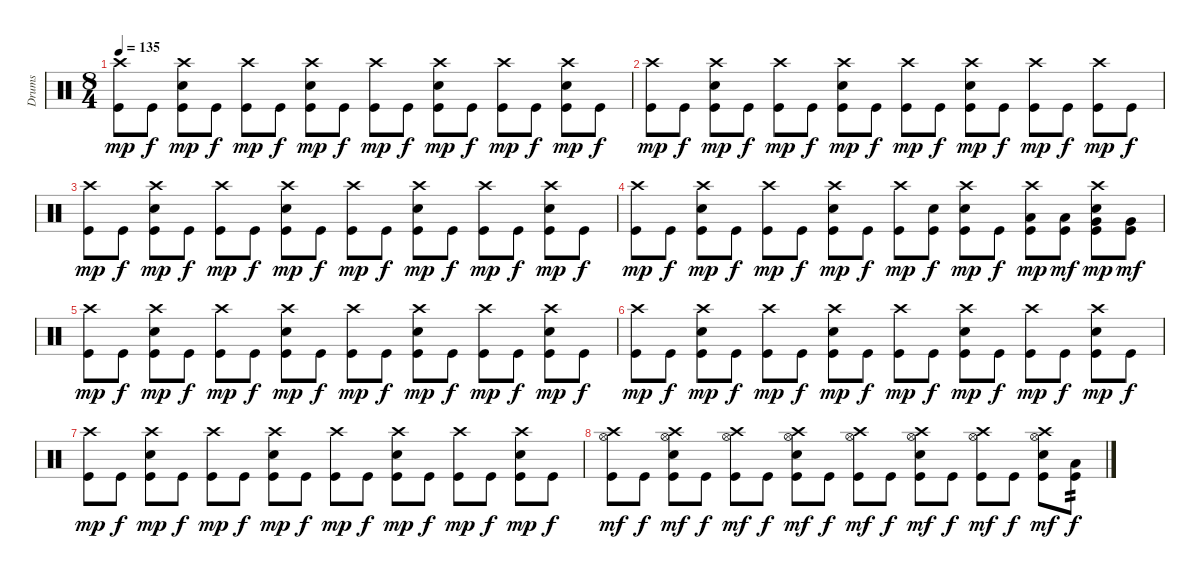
\track ("Drums" "Drums") {instrument percussion}
\staff {score}
\articulation defaults
\ts (8 4)
\tempo 135
\clef neutral
\ks c
("Crash high (hit)" "Kick (hit)").8{dy mp} "Kick (hit)".8{dy f} ("Crash high (hit)" "Electric Snare (hit)" "Kick (hit)").8{dy mp} "Kick (hit)".8{dy f} ("Crash high (hit)" "Kick (hit)").8{dy mp} "Kick (hit)".8{dy f} ("Crash high (hit)" "Electric Snare (hit)" "Kick (hit)").8{dy mp} "Kick (hit)".8{dy f} ("Crash high (hit)" "Kick (hit)").8{dy mp} "Kick (hit)".8{dy f} ("Crash high (hit)" "Electric Snare (hit)" "Kick (hit)").8{dy mp} "Kick (hit)".8{dy f} ("Crash high (hit)" "Kick (hit)").8{dy mp} "Kick (hit)".8{dy f} ("Crash high (hit)" "Electric Snare (hit)" "Kick (hit)").8{dy mp} "Kick (hit)".8{dy f} |
("Crash high (hit)" "Kick (hit)").8{dy mp} "Kick (hit)".8{dy f} ("Crash high (hit)" "Electric Snare (hit)" "Kick (hit)").8{dy mp} "Kick (hit)".8{dy f} ("Crash high (hit)" "Kick (hit)").8{dy mp} "Kick (hit)".8{dy f} ("Crash high (hit)" "Electric Snare (hit)" "Kick (hit)").8{dy mp} "Kick (hit)".8{dy f} ("Crash high (hit)" "Kick (hit)").8{dy mp} "Kick (hit)".8{dy f} ("Crash high (hit)" "Electric Snare (hit)" "Kick (hit)").8{dy mp} "Kick (hit)".8{dy f} ("Crash high (hit)" "Kick (hit)").8{dy mp} "Kick (hit)".8{dy f} ("Crash high (hit)" "Kick (hit)").8{dy mp} "Kick (hit)".8{dy f} |
("Crash high (hit)" "Kick (hit)").8{dy mp} "Kick (hit)".8{dy f} ("Crash high (hit)" "Electric Snare (hit)" "Kick (hit)").8{dy mp} "Kick (hit)".8{dy f} ("Crash high (hit)" "Kick (hit)").8{dy mp} "Kick (hit)".8{dy f} ("Crash high (hit)" "Electric Snare (hit)" "Kick (hit)").8{dy mp} "Kick (hit)".8{dy f} ("Crash high (hit)" "Kick (hit)").8{dy mp} "Kick (hit)".8{dy f} ("Crash high (hit)" "Electric Snare (hit)" "Kick (hit)").8{dy mp} "Kick (hit)".8{dy f} ("Crash high (hit)" "Kick (hit)").8{dy mp} "Kick (hit)".8{dy f} ("Crash high (hit)" "Electric Snare (hit)" "Kick (hit)").8{dy mp} "Kick (hit)".8{dy f} |
("Crash high (hit)" "Kick (hit)").8{dy mp} "Kick (hit)".8{dy f} ("Crash high (hit)" "Electric Snare (hit)" "Kick (hit)").8{dy mp} "Kick (hit)".8{dy f} ("Crash high (hit)" "Kick (hit)").8{dy mp} "Kick (hit)".8{dy f} ("Crash high (hit)" "Electric Snare (hit)" "Kick (hit)").8{dy mp} "Kick (hit)".8{dy f} ("Crash high (hit)" "Kick (hit)").8{dy mp} ("Electric Snare (hit)" "Kick (hit)").8{dy f} ("Crash high (hit)" "Electric Snare (hit)" "Kick (hit)").8{dy mp} "Kick (hit)".8{dy f} ("Crash high (hit)" "Low Tom (hit)" "Kick (hit)").8{dy mp} ("Low Tom (hit)" "Kick (hit)").8{dy mf} ("Crash high (hit)" "Very Low Tom (hit)" "Electric Snare (hit)" "Kick (hit)").8{dy mp} ("Very Low Tom (hit)" "Kick (hit)").8{dy mf} |
("Crash high (hit)" "Kick (hit)").8{dy mp} "Kick (hit)".8{dy f} ("Crash high (hit)" "Electric Snare (hit)" "Kick (hit)").8{dy mp} "Kick (hit)".8{dy f} ("Crash high (hit)" "Kick (hit)").8{dy mp} "Kick (hit)".8{dy f} ("Crash high (hit)" "Electric Snare (hit)" "Kick (hit)").8{dy mp} "Kick (hit)".8{dy f} ("Crash high (hit)" "Kick (hit)").8{dy mp} "Kick (hit)".8{dy f} ("Crash high (hit)" "Electric Snare (hit)" "Kick (hit)").8{dy mp} "Kick (hit)".8{dy f} ("Crash high (hit)" "Kick (hit)").8{dy mp} "Kick (hit)".8{dy f} ("Crash high (hit)" "Electric Snare (hit)" "Kick (hit)").8{dy mp} "Kick (hit)".8{dy f} |
("Crash high (hit)" "Kick (hit)").8{dy mp} "Kick (hit)".8{dy f} ("Crash high (hit)" "Electric Snare (hit)" "Kick (hit)").8{dy mp} "Kick (hit)".8{dy f} ("Crash high (hit)" "Kick (hit)").8{dy mp} "Kick (hit)".8{dy f} ("Crash high (hit)" "Electric Snare (hit)" "Kick (hit)").8{dy mp} "Kick (hit)".8{dy f} ("Crash high (hit)" "Kick (hit)").8{dy mp} "Kick (hit)".8{dy f} ("Crash high (hit)" "Electric Snare (hit)" "Kick (hit)").8{dy mp} "Kick (hit)".8{dy f} ("Crash high (hit)" "Kick (hit)").8{dy mp} "Kick (hit)".8{dy f} ("Crash high (hit)" "Electric Snare (hit)" "Kick (hit)").8{dy mp} "Kick (hit)".8{dy f} |
("Crash high (hit)" "Kick (hit)").8{dy mp} "Kick (hit)".8{dy f} ("Crash high (hit)" "Electric Snare (hit)" "Kick (hit)").8{dy mp} "Kick (hit)".8{dy f} ("Crash high (hit)" "Kick (hit)").8{dy mp} "Kick (hit)".8{dy f} ("Crash high (hit)" "Electric Snare (hit)" "Kick (hit)").8{dy mp} "Kick (hit)".8{dy f} ("Crash high (hit)" "Kick (hit)").8{dy mp} "Kick (hit)".8{dy f} ("Crash high (hit)" "Electric Snare (hit)" "Kick (hit)").8{dy mp} "Kick (hit)".8{dy f} ("Crash high (hit)" "Kick (hit)").8{dy mp} "Kick (hit)".8{dy f} ("Crash high (hit)" "Electric Snare (hit)" "Kick (hit)").8{dy mp} "Kick (hit)".8{dy f} |
("Crash high (hit)" "Hi-Hat (open)" "Kick (hit)").8{dy mf} "Kick (hit)".8{dy f} ("Crash high (hit)" "Hi-Hat (open)" "Electric Snare (hit)" "Kick (hit)").8{dy mf} "Kick (hit)".8{dy f} ("Crash high (hit)" "Hi-Hat (open)" "Kick (hit)").8{dy mf} "Kick (hit)".8{dy f} ("Crash high (hit)" "Hi-Hat (open)" "Electric Snare (hit)" "Kick (hit)").8{dy mf} "Kick (hit)".8{dy f} ("Crash high (hit)" "Hi-Hat (open)" "Kick (hit)").8{dy mf} "Kick (hit)".8{dy f} ("Crash high (hit)" "Hi-Hat (open)" "Electric Snare (hit)" "Kick (hit)").8{dy mf} "Kick (hit)".8{dy f} ("Crash high (hit)" "Hi-Hat (open)" "Kick (hit)").8{dy mf} "Kick (hit)".8{dy f} ("Crash high (hit)" "Hi-Hat (open)" "Electric Snare (hit)" "Kick (hit)").8{dy mf} ("Low Tom (hit)" "Kick (hit)").8{tp 2 dy f}
